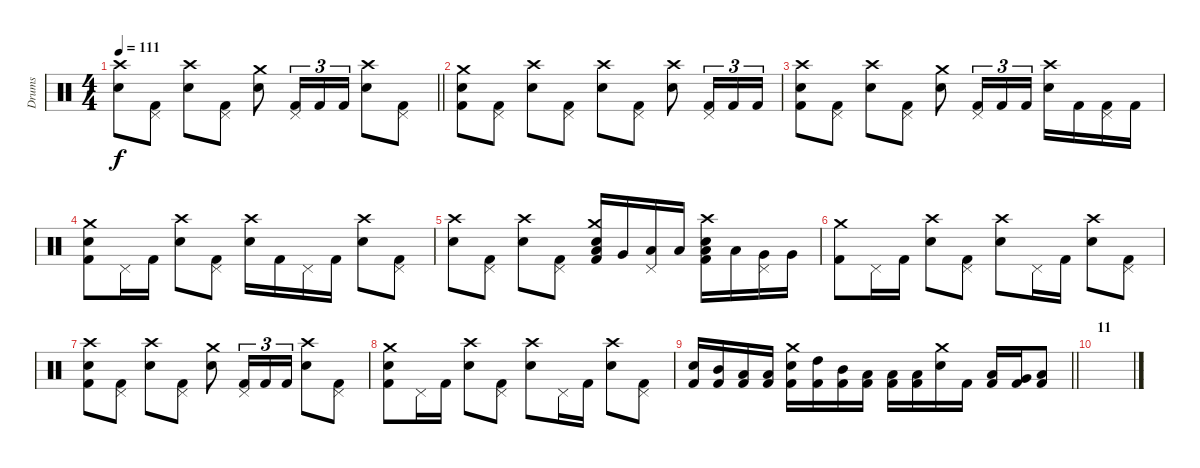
\track ("Drums" "Drums") {instrument percussion}
\staff {score}
\articulation defaults
\ts (4 4)
\tempo 111
\clef neutral
\barLineRight lightlight
\ks c
("Crash high (hit)" "Snare (hit) 2").8{dy f} ("Pedal Hi-Hat (hit)" "Kick (hit) 2").8 ("Crash high (hit)" "Snare (hit) 2").8 ("Pedal Hi-Hat (hit)" "Kick (hit) 2").8 ("Crash medium (hit)" "Snare (hit) 2").8 ("Pedal Hi-Hat (hit)" "Kick (hit) 2").16{tu (3 2)} "Kick (hit) 2".16{tu (3 2)} "Kick (hit) 2".16{tu (3 2)} ("Crash high (hit)" "Snare (hit) 2").8 ("Pedal Hi-Hat (hit)" "Kick (hit) 2").8 |
("Crash medium (hit)" "Snare (hit) 2" "Kick (hit) 2").8 ("Pedal Hi-Hat (hit)" "Kick (hit) 2").8 ("Crash high (hit)" "Snare (hit) 2").8 ("Pedal Hi-Hat (hit)" "Kick (hit) 2").8 ("Crash high (hit)" "Snare (hit) 2").8 ("Pedal Hi-Hat (hit)" "Kick (hit) 2").8 ("Crash high (hit)" "Snare (hit) 2").8 ("Pedal Hi-Hat (hit)" "Kick (hit) 2").16{tu (3 2)} "Kick (hit) 2".16{tu (3 2)} "Kick (hit) 2".16{tu (3 2)} |
("Crash high (hit)" "Snare (hit) 2" "Kick (hit) 2").8 ("Pedal Hi-Hat (hit)" "Kick (hit) 2").8 ("Crash high (hit)" "Snare (hit) 2").8 ("Pedal Hi-Hat (hit)" "Kick (hit) 2").8 ("Crash medium (hit)" "Snare (hit) 2").8 ("Pedal Hi-Hat (hit)" "Kick (hit) 2").16{tu (3 2)} "Kick (hit) 2".16{tu (3 2)} "Kick (hit) 2".16{tu (3 2)} ("Crash high (hit)" "Snare (hit) 2").16 "Kick (hit) 2".16 ("Pedal Hi-Hat (hit)" "Kick (hit) 2").16 "Kick (hit) 2".16 |
("Crash medium (hit)" "Snare (hit) 2" "Kick (hit) 2").8 "Pedal Hi-Hat (hit)".16 "Kick (hit) 2".16 ("Crash high (hit)" "Snare (hit) 2").8 ("Pedal Hi-Hat (hit)" "Kick (hit) 2").8 ("Crash high (hit)" "Snare (hit) 2").16 "Kick (hit) 2".16 "Pedal Hi-Hat (hit)".16 "Kick (hit) 2".16 ("Crash high (hit)" "Snare (hit) 2").8 ("Pedal Hi-Hat (hit)" "Kick (hit) 2").8 |
("Crash high (hit)" "Snare (hit) 2").8 ("Pedal Hi-Hat (hit)" "Kick (hit) 2").8 ("Crash high (hit)" "Snare (hit) 2").8 ("Pedal Hi-Hat (hit)" "Kick (hit) 2").8 ("Crash medium (hit)" "Low Tom (hit)" "Snare (hit) 2" "Kick (hit) 2").16 "Very Low Tom (hit)".16 ("Pedal Hi-Hat (hit)" "Low Floor Tom (hit)").16 "Low Floor Tom (hit)".16 ("Crash high (hit)" "Low Tom (hit)" "Snare (hit) 2" "Kick (hit) 2").16 "Low Tom (hit)".16 ("Pedal Hi-Hat (hit)" "Very Low Tom (hit)").16 "Very Low Tom (hit)".16 |
("Crash medium (hit)" "Kick (hit) 2").8 "Pedal Hi-Hat (hit)".16 "Kick (hit) 2".16 ("Crash high (hit)" "Snare (hit) 2").8 ("Pedal Hi-Hat (hit)" "Kick (hit) 2").8 ("Crash high (hit)" "Snare (hit) 2").8 "Pedal Hi-Hat (hit)".16 "Kick (hit) 2".16 ("Crash high (hit)" "Snare (hit) 2").8 ("Pedal Hi-Hat (hit)" "Kick (hit) 2").8 |
("Crash high (hit)" "Snare (hit) 2" "Kick (hit) 2").8 ("Pedal Hi-Hat (hit)" "Kick (hit) 2").8 ("Crash high (hit)" "Snare (hit) 2").8 ("Pedal Hi-Hat (hit)" "Kick (hit) 2").8 ("Crash medium (hit)" "Snare (hit) 2").8 ("Pedal Hi-Hat (hit)" "Kick (hit) 2").16{tu (3 2)} "Kick (hit) 2".16{tu (3 2)} "Kick (hit) 2".16{tu (3 2)} ("Crash high (hit)" "Snare (hit) 2").8 ("Pedal Hi-Hat (hit)" "Kick (hit) 2").8 |
("Crash medium (hit)" "Snare (hit) 2" "Kick (hit) 2").8 "Pedal Hi-Hat (hit)".16 "Kick (hit) 2".16 ("Crash high (hit)" "Snare (hit) 2").8 ("Pedal Hi-Hat (hit)" "Kick (hit) 2").8 ("Crash high (hit)" "Snare (hit) 2").8 "Pedal Hi-Hat (hit)".16 "Kick (hit) 2".16 ("Crash high (hit)" "Snare (hit) 2").8 ("Pedal Hi-Hat (hit)" "Kick (hit) 2").8 |
\barLineRight lightlight
("Snare (hit) 2" "Kick (hit) 2").16 ("Mid Tom (hit)" "Kick (hit) 2").16 ("Low Floor Tom (hit)" "Kick (hit) 2").16 ("Low Floor Tom (hit)" "Kick (hit) 2").16 ("Crash medium (hit)" "Snare (hit) 2" "Kick (hit) 2").16 ("High Tom (hit)" "Kick (hit) 2").16 ("Mid Tom (hit)" "Kick (hit) 2").16 ("Low Floor Tom (hit)" "Kick (hit) 2").16 ("Low Floor Tom (hit)" "Kick (hit) 2").16 ("Low Floor Tom (hit)" "Kick (hit) 2").16 ("Crash medium (hit)" "Snare (hit) 2").16 "Kick (hit) 2".16 ("Low Tom (hit)" "Kick (hit) 2").16 ("Very Low Tom (hit)" "Kick (hit) 2").16 ("Low Floor Tom (hit)" "Kick (hit) 2").8 |
\section ("" "11")
